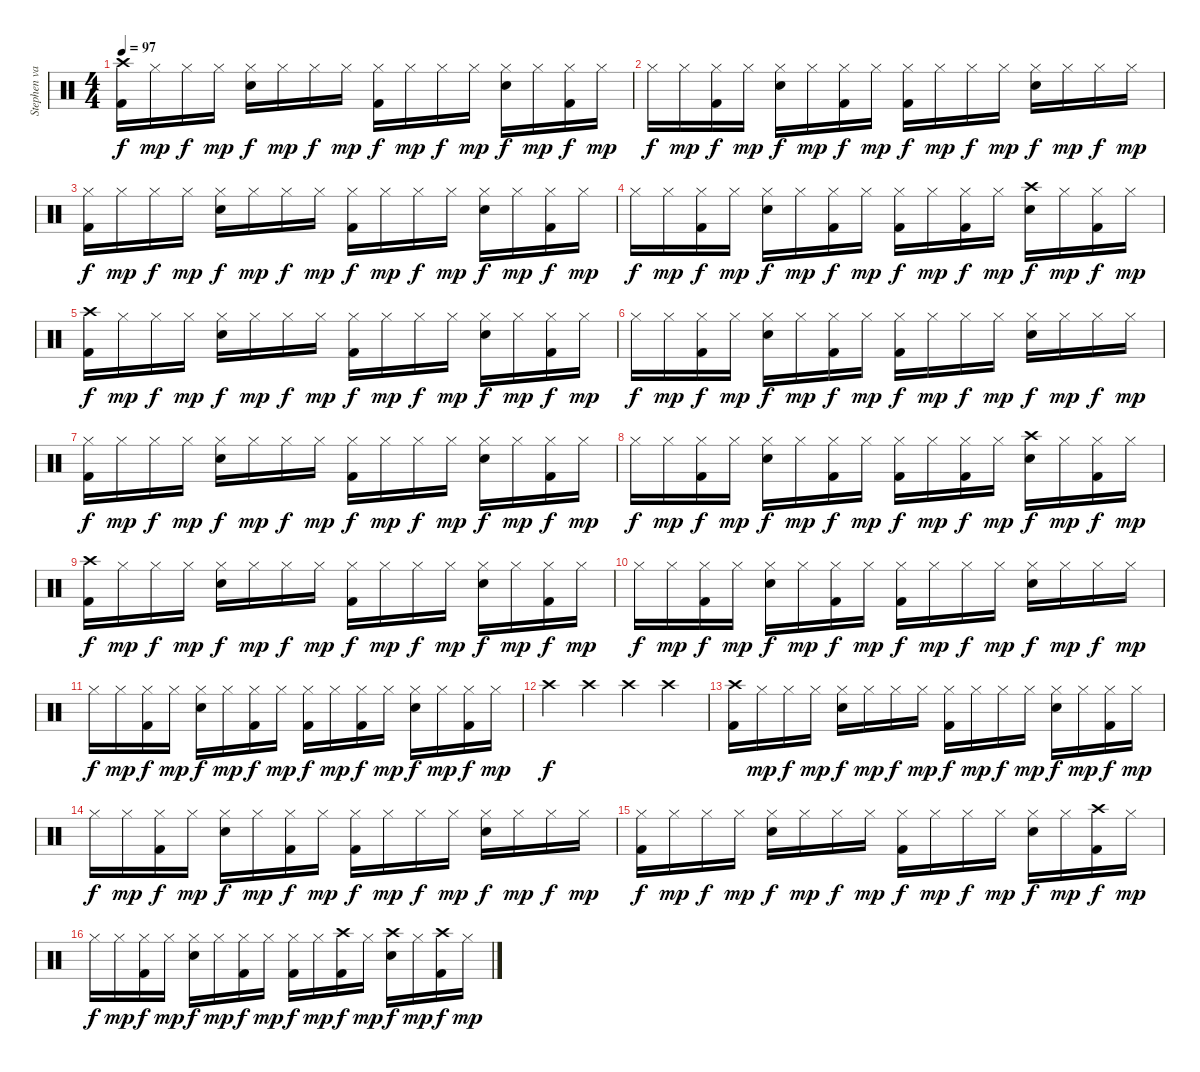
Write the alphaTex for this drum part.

\track ("Stephen van Haestregt (Drums)" "Stephen va") {instrument percussion}
\staff {score}
\articulation defaults
\ts (4 4)
\tempo 97
\clef neutral
\ks c
("Crash high (hit)" "Kick (hit) 2").16{dy f} "Hi-Hat (closed)".16{dy mp} "Hi-Hat (closed)".16{dy f} "Hi-Hat (closed)".16{dy mp} ("Hi-Hat (closed)" "Electric Snare (hit)").16{dy f} "Hi-Hat (closed)".16{dy mp} "Hi-Hat (closed)".16{dy f} "Hi-Hat (closed)".16{dy mp} ("Hi-Hat (closed)" "Kick (hit) 2").16{dy f} "Hi-Hat (closed)".16{dy mp} "Hi-Hat (closed)".16{dy f} "Hi-Hat (closed)".16{dy mp} ("Hi-Hat (closed)" "Electric Snare (hit)").16{dy f} "Hi-Hat (closed)".16{dy mp} ("Hi-Hat (closed)" "Kick (hit) 2").16{dy f} "Hi-Hat (closed)".16{dy mp} |
"Hi-Hat (closed)".16{dy f} "Hi-Hat (closed)".16{dy mp} ("Hi-Hat (closed)" "Kick (hit) 2").16{dy f} "Hi-Hat (closed)".16{dy mp} ("Hi-Hat (closed)" "Electric Snare (hit)").16{dy f} "Hi-Hat (closed)".16{dy mp} ("Hi-Hat (closed)" "Kick (hit) 2").16{dy f} "Hi-Hat (closed)".16{dy mp} ("Hi-Hat (closed)" "Kick (hit) 2").16{dy f} "Hi-Hat (closed)".16{dy mp} "Hi-Hat (closed)".16{dy f} "Hi-Hat (closed)".16{dy mp} ("Hi-Hat (closed)" "Electric Snare (hit)").16{dy f} "Hi-Hat (closed)".16{dy mp} "Hi-Hat (closed)".16{dy f} "Hi-Hat (closed)".16{dy mp} |
("Hi-Hat (closed)" "Kick (hit) 2").16{dy f} "Hi-Hat (closed)".16{dy mp} "Hi-Hat (closed)".16{dy f} "Hi-Hat (closed)".16{dy mp} ("Hi-Hat (closed)" "Electric Snare (hit)").16{dy f} "Hi-Hat (closed)".16{dy mp} "Hi-Hat (closed)".16{dy f} "Hi-Hat (closed)".16{dy mp} ("Hi-Hat (closed)" "Kick (hit) 2").16{dy f} "Hi-Hat (closed)".16{dy mp} "Hi-Hat (closed)".16{dy f} "Hi-Hat (closed)".16{dy mp} ("Hi-Hat (closed)" "Electric Snare (hit)").16{dy f} "Hi-Hat (closed)".16{dy mp} ("Hi-Hat (closed)" "Kick (hit) 2").16{dy f} "Hi-Hat (closed)".16{dy mp} |
"Hi-Hat (closed)".16{dy f} "Hi-Hat (closed)".16{dy mp} ("Hi-Hat (closed)" "Kick (hit) 2").16{dy f} "Hi-Hat (closed)".16{dy mp} ("Hi-Hat (closed)" "Electric Snare (hit)").16{dy f} "Hi-Hat (closed)".16{dy mp} ("Hi-Hat (closed)" "Kick (hit) 2").16{dy f} "Hi-Hat (closed)".16{dy mp} ("Hi-Hat (closed)" "Kick (hit) 2").16{dy f} "Hi-Hat (closed)".16{dy mp} ("Hi-Hat (closed)" "Kick (hit) 2").16{dy f} "Hi-Hat (closed)".16{dy mp} ("Crash high (hit)" "Electric Snare (hit)").16{dy f} "Hi-Hat (closed)".16{dy mp} ("Hi-Hat (closed)" "Kick (hit) 2").16{dy f} "Hi-Hat (closed)".16{dy mp} |
("Crash high (hit)" "Kick (hit) 2").16{dy f} "Hi-Hat (closed)".16{dy mp} "Hi-Hat (closed)".16{dy f} "Hi-Hat (closed)".16{dy mp} ("Hi-Hat (closed)" "Electric Snare (hit)").16{dy f} "Hi-Hat (closed)".16{dy mp} "Hi-Hat (closed)".16{dy f} "Hi-Hat (closed)".16{dy mp} ("Hi-Hat (closed)" "Kick (hit) 2").16{dy f} "Hi-Hat (closed)".16{dy mp} "Hi-Hat (closed)".16{dy f} "Hi-Hat (closed)".16{dy mp} ("Hi-Hat (closed)" "Electric Snare (hit)").16{dy f} "Hi-Hat (closed)".16{dy mp} ("Hi-Hat (closed)" "Kick (hit) 2").16{dy f} "Hi-Hat (closed)".16{dy mp} |
"Hi-Hat (closed)".16{dy f} "Hi-Hat (closed)".16{dy mp} ("Hi-Hat (closed)" "Kick (hit) 2").16{dy f} "Hi-Hat (closed)".16{dy mp} ("Hi-Hat (closed)" "Electric Snare (hit)").16{dy f} "Hi-Hat (closed)".16{dy mp} ("Hi-Hat (closed)" "Kick (hit) 2").16{dy f} "Hi-Hat (closed)".16{dy mp} ("Hi-Hat (closed)" "Kick (hit) 2").16{dy f} "Hi-Hat (closed)".16{dy mp} "Hi-Hat (closed)".16{dy f} "Hi-Hat (closed)".16{dy mp} ("Hi-Hat (closed)" "Electric Snare (hit)").16{dy f} "Hi-Hat (closed)".16{dy mp} "Hi-Hat (closed)".16{dy f} "Hi-Hat (closed)".16{dy mp} |
("Hi-Hat (closed)" "Kick (hit) 2").16{dy f} "Hi-Hat (closed)".16{dy mp} "Hi-Hat (closed)".16{dy f} "Hi-Hat (closed)".16{dy mp} ("Hi-Hat (closed)" "Electric Snare (hit)").16{dy f} "Hi-Hat (closed)".16{dy mp} "Hi-Hat (closed)".16{dy f} "Hi-Hat (closed)".16{dy mp} ("Hi-Hat (closed)" "Kick (hit) 2").16{dy f} "Hi-Hat (closed)".16{dy mp} "Hi-Hat (closed)".16{dy f} "Hi-Hat (closed)".16{dy mp} ("Hi-Hat (closed)" "Electric Snare (hit)").16{dy f} "Hi-Hat (closed)".16{dy mp} ("Hi-Hat (closed)" "Kick (hit) 2").16{dy f} "Hi-Hat (closed)".16{dy mp} |
"Hi-Hat (closed)".16{dy f} "Hi-Hat (closed)".16{dy mp} ("Hi-Hat (closed)" "Kick (hit) 2").16{dy f} "Hi-Hat (closed)".16{dy mp} ("Hi-Hat (closed)" "Electric Snare (hit)").16{dy f} "Hi-Hat (closed)".16{dy mp} ("Hi-Hat (closed)" "Kick (hit) 2").16{dy f} "Hi-Hat (closed)".16{dy mp} ("Hi-Hat (closed)" "Kick (hit) 2").16{dy f} "Hi-Hat (closed)".16{dy mp} ("Hi-Hat (closed)" "Kick (hit) 2").16{dy f} "Hi-Hat (closed)".16{dy mp} ("Crash high (hit)" "Electric Snare (hit)").16{dy f} "Hi-Hat (closed)".16{dy mp} ("Hi-Hat (closed)" "Kick (hit) 2").16{dy f} "Hi-Hat (closed)".16{dy mp} |
("Crash high (hit)" "Kick (hit) 2").16{dy f} "Hi-Hat (closed)".16{dy mp} "Hi-Hat (closed)".16{dy f} "Hi-Hat (closed)".16{dy mp} ("Hi-Hat (closed)" "Electric Snare (hit)").16{dy f} "Hi-Hat (closed)".16{dy mp} "Hi-Hat (closed)".16{dy f} "Hi-Hat (closed)".16{dy mp} ("Hi-Hat (closed)" "Kick (hit) 2").16{dy f} "Hi-Hat (closed)".16{dy mp} "Hi-Hat (closed)".16{dy f} "Hi-Hat (closed)".16{dy mp} ("Hi-Hat (closed)" "Electric Snare (hit)").16{dy f} "Hi-Hat (closed)".16{dy mp} ("Hi-Hat (closed)" "Kick (hit) 2").16{dy f} "Hi-Hat (closed)".16{dy mp} |
"Hi-Hat (closed)".16{dy f} "Hi-Hat (closed)".16{dy mp} ("Hi-Hat (closed)" "Kick (hit) 2").16{dy f} "Hi-Hat (closed)".16{dy mp} ("Hi-Hat (closed)" "Electric Snare (hit)").16{dy f} "Hi-Hat (closed)".16{dy mp} ("Hi-Hat (closed)" "Kick (hit) 2").16{dy f} "Hi-Hat (closed)".16{dy mp} ("Hi-Hat (closed)" "Kick (hit) 2").16{dy f} "Hi-Hat (closed)".16{dy mp} "Hi-Hat (closed)".16{dy f} "Hi-Hat (closed)".16{dy mp} ("Hi-Hat (closed)" "Electric Snare (hit)").16{dy f} "Hi-Hat (closed)".16{dy mp} "Hi-Hat (closed)".16{dy f} "Hi-Hat (closed)".16{dy mp} |
"Hi-Hat (closed)".16{dy f} "Hi-Hat (closed)".16{dy mp} ("Hi-Hat (closed)" "Kick (hit) 2").16{dy f} "Hi-Hat (closed)".16{dy mp} ("Hi-Hat (closed)" "Electric Snare (hit)").16{dy f} "Hi-Hat (closed)".16{dy mp} ("Hi-Hat (closed)" "Kick (hit) 2").16{dy f} "Hi-Hat (closed)".16{dy mp} ("Hi-Hat (closed)" "Kick (hit) 2").16{dy f} "Hi-Hat (closed)".16{dy mp} ("Hi-Hat (closed)" "Kick (hit) 2").16{dy f} "Hi-Hat (closed)".16{dy mp} ("Hi-Hat (closed)" "Electric Snare (hit)").16{dy f} "Hi-Hat (closed)".16{dy mp} ("Hi-Hat (closed)" "Kick (hit) 2").16{dy f} "Hi-Hat (closed)".16{dy mp} |
"Crash high (hit)".4{dy f} "Crash high (hit)".4 "Crash high (hit)".4 "Crash high (hit)".4 |
("Crash high (hit)" "Kick (hit) 2").16 "Hi-Hat (closed)".16{dy mp} "Hi-Hat (closed)".16{dy f} "Hi-Hat (closed)".16{dy mp} ("Hi-Hat (closed)" "Electric Snare (hit)").16{dy f} "Hi-Hat (closed)".16{dy mp} "Hi-Hat (closed)".16{dy f} "Hi-Hat (closed)".16{dy mp} ("Hi-Hat (closed)" "Kick (hit) 2").16{dy f} "Hi-Hat (closed)".16{dy mp} "Hi-Hat (closed)".16{dy f} "Hi-Hat (closed)".16{dy mp} ("Hi-Hat (closed)" "Electric Snare (hit)").16{dy f} "Hi-Hat (closed)".16{dy mp} ("Hi-Hat (closed)" "Kick (hit) 2").16{dy f} "Hi-Hat (closed)".16{dy mp} |
"Hi-Hat (closed)".16{dy f} "Hi-Hat (closed)".16{dy mp} ("Hi-Hat (closed)" "Kick (hit) 2").16{dy f} "Hi-Hat (closed)".16{dy mp} ("Hi-Hat (closed)" "Electric Snare (hit)").16{dy f} "Hi-Hat (closed)".16{dy mp} ("Hi-Hat (closed)" "Kick (hit) 2").16{dy f} "Hi-Hat (closed)".16{dy mp} ("Hi-Hat (closed)" "Kick (hit) 2").16{dy f} "Hi-Hat (closed)".16{dy mp} "Hi-Hat (closed)".16{dy f} "Hi-Hat (closed)".16{dy mp} ("Hi-Hat (closed)" "Electric Snare (hit)").16{dy f} "Hi-Hat (closed)".16{dy mp} "Hi-Hat (closed)".16{dy f} "Hi-Hat (closed)".16{dy mp} |
("Hi-Hat (closed)" "Kick (hit) 2").16{dy f} "Hi-Hat (closed)".16{dy mp} "Hi-Hat (closed)".16{dy f} "Hi-Hat (closed)".16{dy mp} ("Hi-Hat (closed)" "Electric Snare (hit)").16{dy f} "Hi-Hat (closed)".16{dy mp} "Hi-Hat (closed)".16{dy f} "Hi-Hat (closed)".16{dy mp} ("Hi-Hat (closed)" "Kick (hit) 2").16{dy f} "Hi-Hat (closed)".16{dy mp} "Hi-Hat (closed)".16{dy f} "Hi-Hat (closed)".16{dy mp} ("Hi-Hat (closed)" "Electric Snare (hit)").16{dy f} "Hi-Hat (closed)".16{dy mp} ("Crash high (hit)" "Kick (hit) 2").16{dy f} "Hi-Hat (closed)".16{dy mp} |
"Hi-Hat (closed)".16{dy f} "Hi-Hat (closed)".16{dy mp} ("Hi-Hat (closed)" "Kick (hit) 2").16{dy f} "Hi-Hat (closed)".16{dy mp} ("Hi-Hat (closed)" "Electric Snare (hit)").16{dy f} "Hi-Hat (closed)".16{dy mp} ("Hi-Hat (closed)" "Kick (hit) 2").16{dy f} "Hi-Hat (closed)".16{dy mp} ("Hi-Hat (closed)" "Kick (hit) 2").16{dy f} "Hi-Hat (closed)".16{dy mp} ("Crash high (hit)" "Kick (hit) 2").16{dy f} "Hi-Hat (closed)".16{dy mp} ("Crash high (hit)" "Electric Snare (hit)").16{dy f} "Hi-Hat (closed)".16{dy mp} ("Crash high (hit)" "Kick (hit) 2").16{dy f} "Hi-Hat (closed)".16{dy mp}
